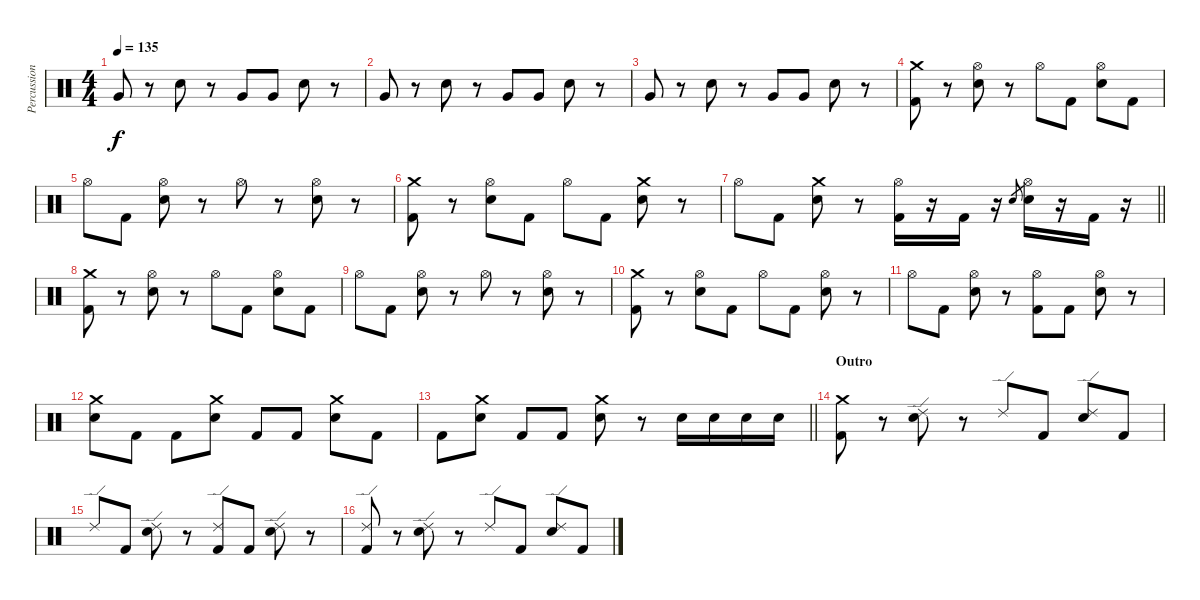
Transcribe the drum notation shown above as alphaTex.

\track ("Percussion" "Percussion") {instrument percussion}
\staff {score}
\articulation defaults
\ts (4 4)
\tempo 135
\clef neutral
\ks c "Very Low Tom (hit)".8{dy f}
r.8 "Electric Snare (hit)".8 r.8 "Very Low Tom (hit)".8 "Very Low Tom (hit)".8 "Electric Snare (hit)".8 r.8 |
"Very Low Tom (hit)".8 r.8 "Electric Snare (hit)".8 r.8 "Very Low Tom (hit)".8 "Very Low Tom (hit)".8 "Electric Snare (hit)".8 r.8 |
"Very Low Tom (hit)".8 r.8 "Electric Snare (hit)".8 r.8 "Very Low Tom (hit)".8 "Very Low Tom (hit)".8 "Electric Snare (hit)".8 r.8 |
("Crash medium (hit)" "Kick (hit) 2").8 r.8 ("Hi-Hat (open)" "Electric Snare (hit)").8 r.8 "Hi-Hat (open)".8 "Kick (hit) 2".8 ("Hi-Hat (open)" "Electric Snare (hit)").8 "Kick (hit) 2".8 |
"Hi-Hat (open)".8 "Kick (hit) 2".8 ("Hi-Hat (open)" "Electric Snare (hit)").8 r.8 "Hi-Hat (open)".8 r.8 ("Hi-Hat (open)" "Electric Snare (hit)").8 r.8 |
("Crash medium (hit)" "Kick (hit) 2").8 r.8 ("Hi-Hat (open)" "Electric Snare (hit)").8 "Kick (hit) 2".8 "Hi-Hat (open)".8 "Kick (hit) 2".8 ("Crash medium (hit)" "Electric Snare (hit)").8 r.8 |
\barLineRight lightlight "Hi-Hat (open)".8 "Kick (hit) 2".8
("Crash medium (hit)" "Electric Snare (hit)").8 r.8 ("Hi-Hat (open)" "Kick (hit) 2").16 r.16 "Kick (hit) 2".16 r.16 "Electric Snare (hit)".8{gr} ("Hi-Hat (open)" "Electric Snare (hit)").16 r.16 "Kick (hit) 2".16 r.16 |
("Crash medium (hit)" "Kick (hit) 2").8 r.8 ("Hi-Hat (open)" "Electric Snare (hit)").8 r.8 "Hi-Hat (open)".8 "Kick (hit) 2".8 ("Hi-Hat (open)" "Electric Snare (hit)").8 "Kick (hit) 2".8 |
"Hi-Hat (open)".8 "Kick (hit) 2".8 ("Hi-Hat (open)" "Electric Snare (hit)").8 r.8 "Hi-Hat (open)".8 r.8 ("Hi-Hat (open)" "Electric Snare (hit)").8 r.8 |
("Crash medium (hit)" "Kick (hit) 2").8 r.8 ("Hi-Hat (open)" "Electric Snare (hit)").8 "Kick (hit) 2".8 "Hi-Hat (open)".8 "Kick (hit) 2".8 ("Hi-Hat (open)" "Electric Snare (hit)").8 r.8 |
"Hi-Hat (open)".8 "Kick (hit) 2".8 ("Hi-Hat (open)" "Electric Snare (hit)").8 r.8 ("Hi-Hat (open)" "Kick (hit) 2").8 "Kick (hit) 2".8 ("Hi-Hat (open)" "Electric Snare (hit)").8 r.8 |
("Crash medium (hit)" "Electric Snare (hit)").8 "Kick (hit) 2".8 "Kick (hit) 2".8 ("Crash medium (hit)" "Electric Snare (hit)").8 "Kick (hit) 2".8 "Kick (hit) 2".8 ("Crash medium (hit)" "Electric Snare (hit)").8 "Kick (hit) 2".8 |
\barLineRight lightlight "Kick (hit) 2".8
("Crash medium (hit)" "Electric Snare (hit)").8 "Kick (hit) 2".8 "Kick (hit) 2".8 ("Crash medium (hit)" "Electric Snare (hit)").8 r.8 "Electric Snare (hit)".16 "Electric Snare (hit)".16 "Electric Snare (hit)".16 "Electric Snare (hit)".16 |
\section ("" "Outro")
("Crash medium (hit)" "Kick (hit) 2").8 r.8 ("Ride (edge) 2" "Electric Snare (hit)").8 r.8 "Ride (edge) 2".8 "Kick (hit) 2".8 ("Ride (edge) 2" "Electric Snare (hit)").8 "Kick (hit) 2".8 |
"Ride (edge) 2".8 "Kick (hit) 2".8 ("Ride (edge) 2" "Electric Snare (hit)").8 r.8 ("Ride (edge) 2" "Kick (hit) 2").8 "Kick (hit) 2".8 ("Ride (edge) 2" "Electric Snare (hit)").8 r.8 |
("Ride (edge) 2" "Kick (hit) 2").8 r.8 ("Ride (edge) 2" "Electric Snare (hit)").8 r.8 "Ride (edge) 2".8 "Kick (hit) 2".8 ("Ride (edge) 2" "Electric Snare (hit)").8 "Kick (hit) 2".8
